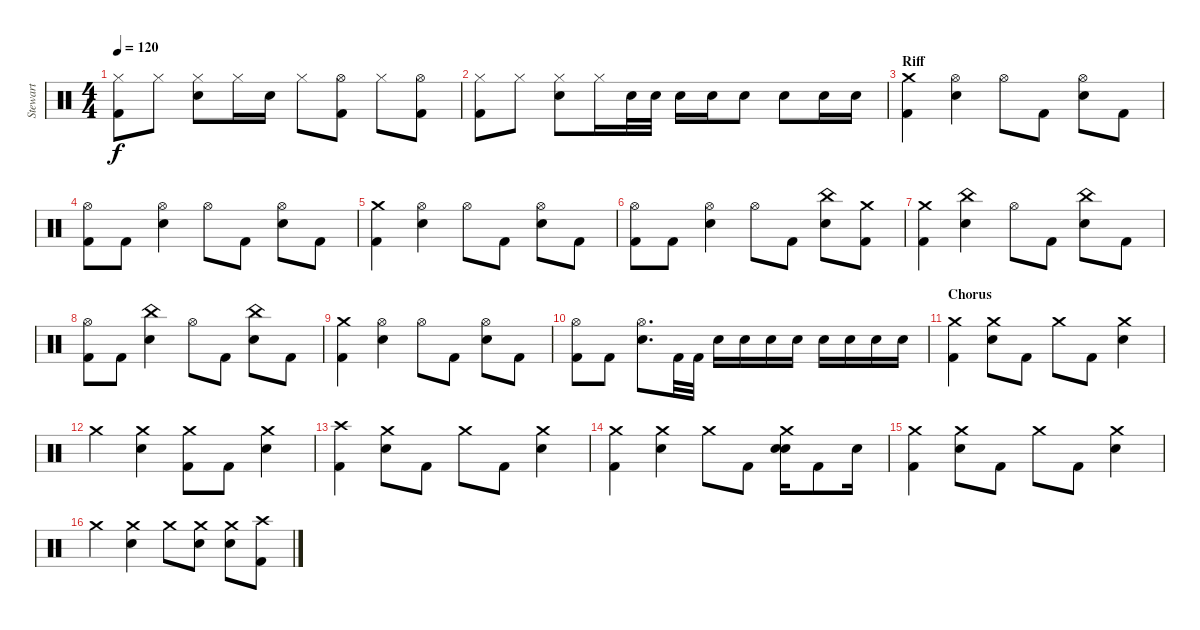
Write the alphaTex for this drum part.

\track ("Stewart" "Stewart") {instrument percussion}
\staff {score}
\articulation defaults
\ts (4 4)
\tempo 120
\clef neutral
\ks c
("Hi-Hat (closed)" "Kick (hit) 2").8{dy f} "Hi-Hat (closed)".8 ("Hi-Hat (closed)" "Electric Snare (hit)").8 "Hi-Hat (closed)".16 "Electric Snare (hit)".16 "Hi-Hat (closed)".8 ("Hi-Hat (open)" "Kick (hit) 2").8 "Hi-Hat (closed)".8 ("Hi-Hat (open)" "Kick (hit) 2").8 |
("Hi-Hat (closed)" "Kick (hit) 2").8 "Hi-Hat (closed)".8 ("Hi-Hat (closed)" "Electric Snare (hit)").8 "Hi-Hat (closed)".16 "Electric Snare (hit)".32 "Electric Snare (hit)".32 "Electric Snare (hit)".16 "Electric Snare (hit)".16 "Electric Snare (hit)".8 "Electric Snare (hit)".8 "Electric Snare (hit)".16 "Electric Snare (hit)".16 |
\section ("" "Riff")
("Crash medium (hit)" "Kick (hit) 2").4 ("Hi-Hat (open)" "Electric Snare (hit)").4 "Hi-Hat (open)".8 "Kick (hit) 2".8 ("Hi-Hat (open)" "Electric Snare (hit)").8 "Kick (hit) 2".8 |
("Hi-Hat (open)" "Kick (hit) 2").8 "Kick (hit) 2".8 ("Hi-Hat (open)" "Electric Snare (hit)").4 "Hi-Hat (open)".8 "Kick (hit) 2".8 ("Hi-Hat (open)" "Electric Snare (hit)").8 "Kick (hit) 2".8 |
("Crash medium (hit)" "Kick (hit) 2").4 ("Hi-Hat (open)" "Electric Snare (hit)").4 "Hi-Hat (open)".8 "Kick (hit) 2".8 ("Hi-Hat (open)" "Electric Snare (hit)").8 "Kick (hit) 2".8 |
("Hi-Hat (open)" "Kick (hit) 2").8 "Kick (hit) 2".8 ("Hi-Hat (open)" "Electric Snare (hit)").4 "Hi-Hat (open)".8 "Kick (hit) 2".8 ("China (hit)" "Electric Snare (hit)").8 ("Crash medium (hit)" "Kick (hit) 2").8 |
("Crash medium (hit)" "Kick (hit) 2").4 ("China (hit)" "Electric Snare (hit)").4 "Hi-Hat (open)".8 "Kick (hit) 2".8 ("China (hit)" "Electric Snare (hit)").8 "Kick (hit) 2".8 |
("Hi-Hat (open)" "Kick (hit) 2").8 "Kick (hit) 2".8 ("China (hit)" "Electric Snare (hit)").4 "Hi-Hat (open)".8 "Kick (hit) 2".8 ("China (hit)" "Electric Snare (hit)").8 "Kick (hit) 2".8 |
("Crash medium (hit)" "Kick (hit) 2").4 ("Hi-Hat (open)" "Electric Snare (hit)").4 "Hi-Hat (open)".8 "Kick (hit) 2".8 ("Hi-Hat (open)" "Electric Snare (hit)").8 "Kick (hit) 2".8 |
("Hi-Hat (open)" "Kick (hit) 2").8 "Kick (hit) 2".8 ("Hi-Hat (open)" "Electric Snare (hit)").8{d} "Kick (hit) 2".32 "Kick (hit) 2".32 "Electric Snare (hit)".16 "Electric Snare (hit)".16 "Electric Snare (hit)".16 "Electric Snare (hit)".16 "Electric Snare (hit)".16 "Electric Snare (hit)".16 "Electric Snare (hit)".16 "Electric Snare (hit)".16 |
\section ("" "Chorus")
("Crash medium (hit)" "Kick (hit) 2").4 ("Crash medium (hit)" "Electric Snare (hit)").8 "Kick (hit) 2".8 "Crash medium (hit)".8 "Kick (hit) 2".8 ("Crash medium (hit)" "Electric Snare (hit)").4 |
"Crash medium (hit)".4 ("Crash medium (hit)" "Electric Snare (hit)").4 ("Crash medium (hit)" "Kick (hit) 2").8 "Kick (hit) 2".8 ("Crash medium (hit)" "Electric Snare (hit)").4 |
("Crash high (hit)" "Kick (hit) 2").4 ("Crash medium (hit)" "Electric Snare (hit)").8 "Kick (hit) 2".8 "Crash medium (hit)".8 "Kick (hit) 2".8 ("Crash medium (hit)" "Electric Snare (hit)").4 |
("Crash medium (hit)" "Kick (hit) 2").4 ("Crash medium (hit)" "Electric Snare (hit)").4 "Crash medium (hit)".8 "Kick (hit) 2".8 ("Crash medium (hit)" "Electric Snare (hit)" "Electric Snare (hit)").16 "Kick (hit) 2".8 "Electric Snare (hit)".16 |
("Crash medium (hit)" "Kick (hit) 2").4 ("Crash medium (hit)" "Electric Snare (hit)").8 "Kick (hit) 2".8 "Crash medium (hit)".8 "Kick (hit) 2".8 ("Crash medium (hit)" "Electric Snare (hit)").4 |
"Crash medium (hit)".4 ("Crash medium (hit)" "Electric Snare (hit)").4 "Crash medium (hit)".8 ("Crash medium (hit)" "Electric Snare (hit)").8 ("Crash medium (hit)" "Electric Snare (hit)").8 ("Crash high (hit)" "Kick (hit) 2").8
